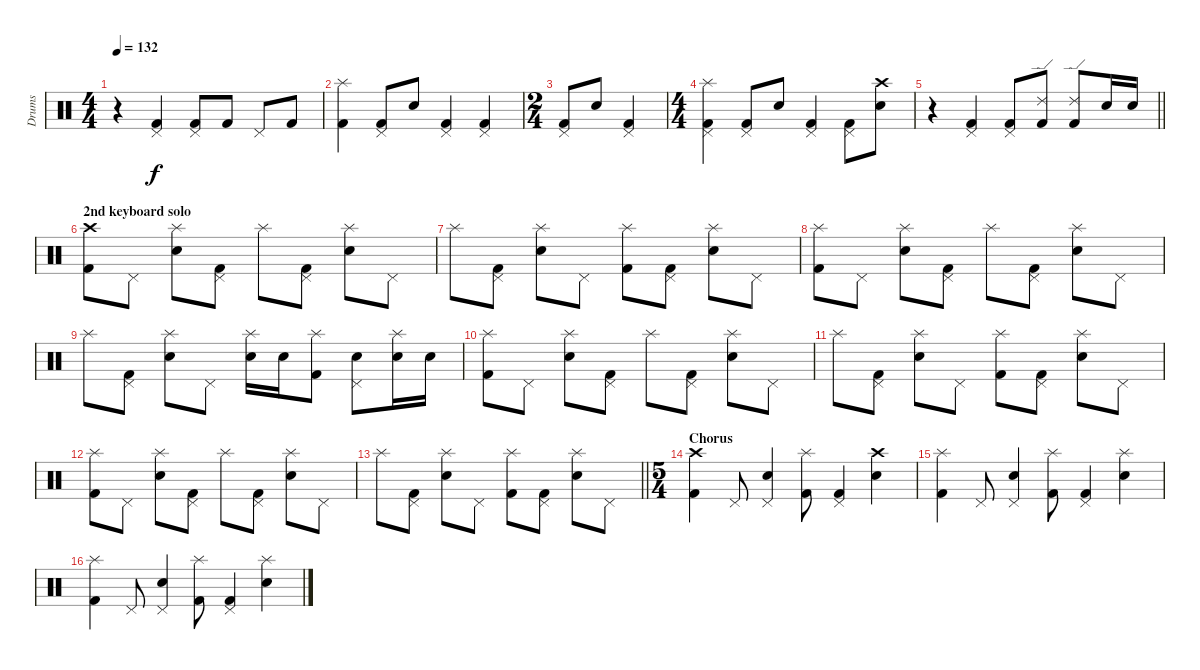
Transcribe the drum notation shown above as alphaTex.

\track ("Drums" "Drums") {instrument percussion}
\staff {score}
\articulation defaults
\ts (4 4)
\tempo 132
\clef neutral
\ks c
r.4{dy f} ("Pedal Hi-Hat (hit)" "Kick (hit) 2").4 ("Pedal Hi-Hat (hit)" "Kick (hit) 2").8 "Kick (hit) 2".8 "Pedal Hi-Hat (hit)".8 "Kick (hit) 2".8 |
("Splash (hit)" "Kick (hit) 2").4 ("Pedal Hi-Hat (hit)" "Kick (hit) 2").8 "Snare (hit) 2".8 ("Pedal Hi-Hat (hit)" "Kick (hit) 2").4 ("Pedal Hi-Hat (hit)" "Kick (hit) 2").4 |
\ts (2 4)
("Pedal Hi-Hat (hit)" "Kick (hit) 2").8 "Snare (hit) 2".8 ("Pedal Hi-Hat (hit)" "Kick (hit) 2").4 |
\ts (4 4)
("Pedal Hi-Hat (hit)" "Splash (hit)" "Kick (hit) 2").4 ("Pedal Hi-Hat (hit)" "Kick (hit) 2").8 "Snare (hit) 2".8 ("Pedal Hi-Hat (hit)" "Kick (hit) 2").4 ("Pedal Hi-Hat (hit)" "Kick (hit) 2").8 ("Crash high (hit)" "Snare (hit) 2").8 |
\barLineRight lightlight
r.4 ("Pedal Hi-Hat (hit)" "Kick (hit) 2").4 ("Pedal Hi-Hat (hit)" "Kick (hit) 2").8 ("Ride (edge) 2" "Kick (hit) 2").8 ("Ride (edge) 2" "Kick (hit) 2").8 "Snare (hit) 2".16 "Snare (hit) 2".16 |
\section ("" "2nd keyboard solo")
("Crash high (hit)" "Kick (hit) 2").8 "Pedal Hi-Hat (hit)".8 ("Splash (hit)" "Snare (hit) 2").8 ("Pedal Hi-Hat (hit)" "Kick (hit) 2").8 "Splash (hit)".8 ("Pedal Hi-Hat (hit)" "Kick (hit) 2").8 ("Splash (hit)" "Snare (hit) 2").8 "Pedal Hi-Hat (hit)".8 |
"Splash (hit)".8 ("Pedal Hi-Hat (hit)" "Kick (hit) 2").8 ("Splash (hit)" "Snare (hit) 2").8 "Pedal Hi-Hat (hit)".8 ("Splash (hit)" "Kick (hit) 2").8 ("Pedal Hi-Hat (hit)" "Kick (hit) 2").8 ("Splash (hit)" "Snare (hit) 2").8 "Pedal Hi-Hat (hit)".8 |
("Splash (hit)" "Kick (hit) 2").8 "Pedal Hi-Hat (hit)".8 ("Splash (hit)" "Snare (hit) 2").8 ("Pedal Hi-Hat (hit)" "Kick (hit) 2").8 "Splash (hit)".8 ("Pedal Hi-Hat (hit)" "Kick (hit) 2").8 ("Splash (hit)" "Snare (hit) 2").8 "Pedal Hi-Hat (hit)".8 |
"Splash (hit)".8 ("Pedal Hi-Hat (hit)" "Kick (hit) 2").8 ("Splash (hit)" "Snare (hit) 2").8 "Pedal Hi-Hat (hit)".8 ("Splash (hit)" "Snare (hit) 2").16 "Snare (hit) 2".16 ("Splash (hit)" "Kick (hit) 2").8 ("Pedal Hi-Hat (hit)" "Snare (hit) 2").8 ("Splash (hit)" "Snare (hit) 2").16 "Snare (hit) 2".16 |
("Splash (hit)" "Kick (hit) 2").8 "Pedal Hi-Hat (hit)".8 ("Splash (hit)" "Snare (hit) 2").8 ("Pedal Hi-Hat (hit)" "Kick (hit) 2").8 "Splash (hit)".8 ("Pedal Hi-Hat (hit)" "Kick (hit) 2").8 ("Splash (hit)" "Snare (hit) 2").8 "Pedal Hi-Hat (hit)".8 |
"Splash (hit)".8 ("Pedal Hi-Hat (hit)" "Kick (hit) 2").8 ("Splash (hit)" "Snare (hit) 2").8 "Pedal Hi-Hat (hit)".8 ("Splash (hit)" "Kick (hit) 2").8 ("Pedal Hi-Hat (hit)" "Kick (hit) 2").8 ("Splash (hit)" "Snare (hit) 2").8 "Pedal Hi-Hat (hit)".8 |
("Splash (hit)" "Kick (hit) 2").8 "Pedal Hi-Hat (hit)".8 ("Splash (hit)" "Snare (hit) 2").8 ("Pedal Hi-Hat (hit)" "Kick (hit) 2").8 "Splash (hit)".8 ("Pedal Hi-Hat (hit)" "Kick (hit) 2").8 ("Splash (hit)" "Snare (hit) 2").8 "Pedal Hi-Hat (hit)".8 |
\barLineRight lightlight "Splash (hit)".8
("Pedal Hi-Hat (hit)" "Kick (hit) 2").8 ("Splash (hit)" "Snare (hit) 2").8 "Pedal Hi-Hat (hit)".8 ("Splash (hit)" "Kick (hit) 2").8 ("Pedal Hi-Hat (hit)" "Kick (hit) 2").8 ("Splash (hit)" "Snare (hit) 2").8 "Pedal Hi-Hat (hit)".8 |
\ts (5 4)
\section ("" "Chorus")
("Crash high (hit)" "Kick (hit) 2").4 "Pedal Hi-Hat (hit)".8 ("Pedal Hi-Hat (hit)" "Snare (hit) 2").4 ("Splash (hit)" "Kick (hit) 2").8 ("Pedal Hi-Hat (hit)" "Kick (hit) 2").4 ("Crash high (hit)" "Snare (hit) 2").4 |
("Splash (hit)" "Kick (hit) 2").4 "Pedal Hi-Hat (hit)".8 ("Pedal Hi-Hat (hit)" "Snare (hit) 2").4 ("Splash (hit)" "Kick (hit) 2").8 ("Pedal Hi-Hat (hit)" "Kick (hit) 2").4 ("Splash (hit)" "Snare (hit) 2").4 |
("Splash (hit)" "Kick (hit) 2").4 "Pedal Hi-Hat (hit)".8 ("Pedal Hi-Hat (hit)" "Snare (hit) 2").4 ("Splash (hit)" "Kick (hit) 2").8 ("Pedal Hi-Hat (hit)" "Kick (hit) 2").4 ("Splash (hit)" "Snare (hit) 2").4
